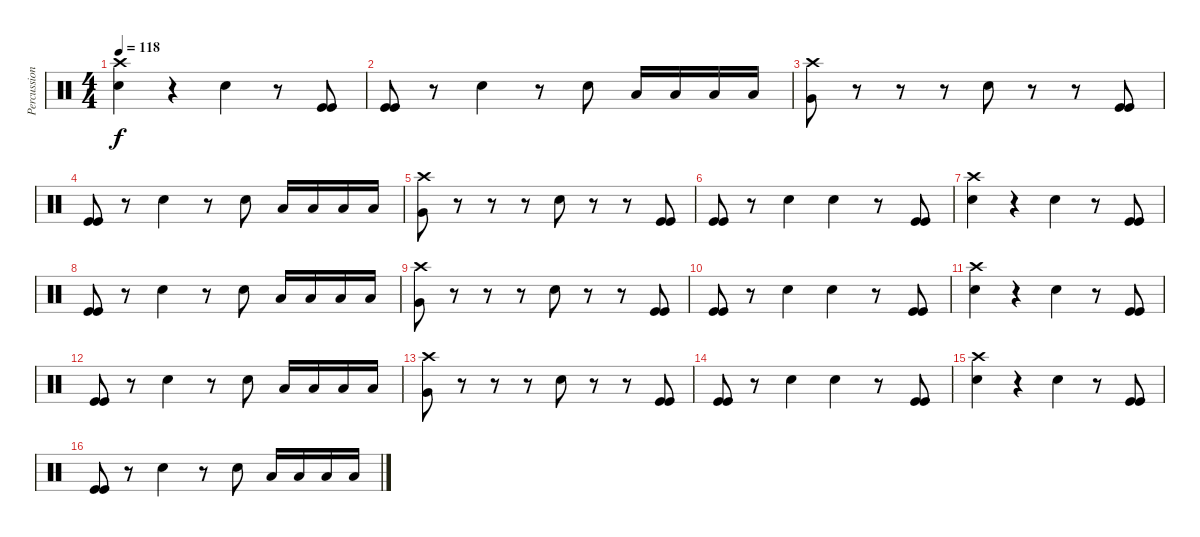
\track ("Percussion" "Percussion") {instrument percussion}
\staff {score}
\articulation defaults
\ts (4 4)
\tempo 118
\clef neutral
\ks c
("Crash high (hit)" "Electric Snare (hit)").4{dy f} r.4 "Electric Snare (hit)".4 r.8 ("Kick (hit)" "Kick (hit)").8 |
("Kick (hit)" "Kick (hit)").8 r.8 "Electric Snare (hit)".4 r.8 "Electric Snare (hit)".8 "Low Tom (hit)".16 "Low Floor Tom (hit)".16 "Low Tom (hit)".16 "Low Floor Tom (hit)".16 |
("Crash high (hit)" "Very Low Tom (hit)").8 r.8 r.8 r.8 "Electric Snare (hit)".8 r.8 r.8 ("Kick (hit)" "Kick (hit)").8 |
("Kick (hit)" "Kick (hit)").8 r.8 "Electric Snare (hit)".4 r.8 "Electric Snare (hit)".8 "Low Tom (hit)".16 "Low Floor Tom (hit)".16 "Low Tom (hit)".16 "Low Floor Tom (hit)".16 |
("Crash high (hit)" "Very Low Tom (hit)").8 r.8 r.8 r.8 "Electric Snare (hit)".8 r.8 r.8 ("Kick (hit)" "Kick (hit)").8 |
("Kick (hit)" "Kick (hit)").8 r.8 "Electric Snare (hit)".4 "Electric Snare (hit)".4 r.8 ("Kick (hit)" "Kick (hit)").8 |
("Crash high (hit)" "Electric Snare (hit)").4 r.4 "Electric Snare (hit)".4 r.8 ("Kick (hit)" "Kick (hit)").8 |
("Kick (hit)" "Kick (hit)").8 r.8 "Electric Snare (hit)".4 r.8 "Electric Snare (hit)".8 "Low Tom (hit)".16 "Low Floor Tom (hit)".16 "Low Tom (hit)".16 "Low Floor Tom (hit)".16 |
("Crash high (hit)" "Very Low Tom (hit)").8 r.8 r.8 r.8 "Electric Snare (hit)".8 r.8 r.8 ("Kick (hit)" "Kick (hit)").8 |
("Kick (hit)" "Kick (hit)").8 r.8 "Electric Snare (hit)".4 "Electric Snare (hit)".4 r.8 ("Kick (hit)" "Kick (hit)").8 |
("Crash high (hit)" "Electric Snare (hit)").4 r.4 "Electric Snare (hit)".4 r.8 ("Kick (hit)" "Kick (hit)").8 |
("Kick (hit)" "Kick (hit)").8 r.8 "Electric Snare (hit)".4 r.8 "Electric Snare (hit)".8 "Low Tom (hit)".16 "Low Floor Tom (hit)".16 "Low Tom (hit)".16 "Low Floor Tom (hit)".16 |
("Crash high (hit)" "Very Low Tom (hit)").8 r.8 r.8 r.8 "Electric Snare (hit)".8 r.8 r.8 ("Kick (hit)" "Kick (hit)").8 |
("Kick (hit)" "Kick (hit)").8 r.8 "Electric Snare (hit)".4 "Electric Snare (hit)".4 r.8 ("Kick (hit)" "Kick (hit)").8 |
("Crash high (hit)" "Electric Snare (hit)").4 r.4 "Electric Snare (hit)".4 r.8 ("Kick (hit)" "Kick (hit)").8 |
("Kick (hit)" "Kick (hit)").8 r.8 "Electric Snare (hit)".4 r.8 "Electric Snare (hit)".8 "Low Tom (hit)".16 "Low Floor Tom (hit)".16 "Low Tom (hit)".16 "Low Floor Tom (hit)".16
